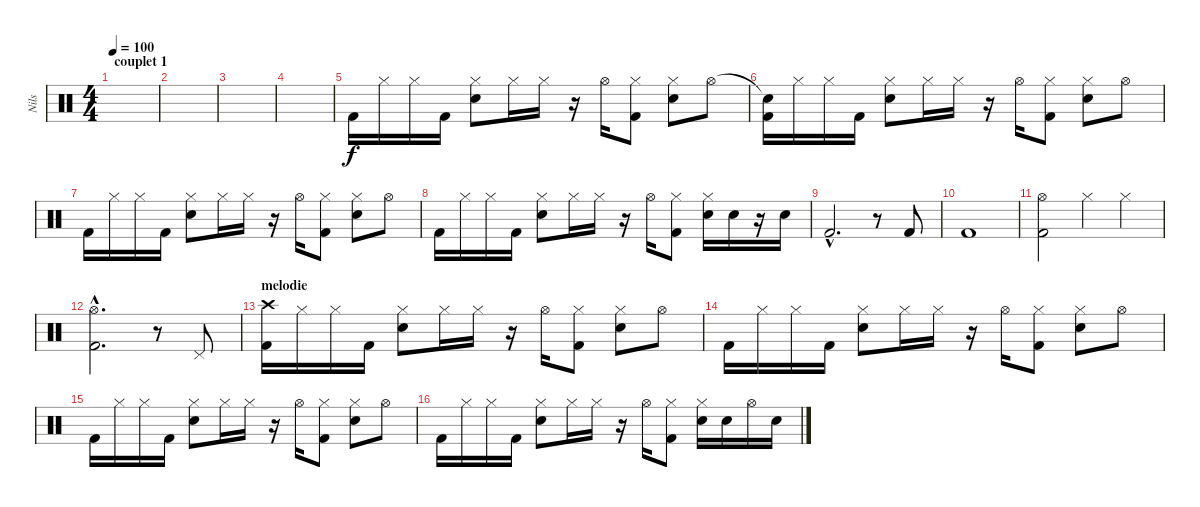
\track ("Nils" "Nils") {instrument percussion}
\staff {score}
\articulation defaults
\ts (4 4)
\section ("" "couplet 1")
\tempo 100
\clef neutral
\ks c
|
|
|
|
"Kick (hit) 2".16 "Hi-Hat (closed)".16 "Hi-Hat (closed)".16 "Kick (hit) 2".16 ("Hi-Hat (closed)" "Snare (hit) 2").8 "Hi-Hat (closed)".16 "Hi-Hat (closed)".16 r.16 "Hi-Hat (open)".16 ("Hi-Hat (closed)" "Kick (hit) 2").8 ("Hi-Hat (closed)" "Snare (hit) 2").8 "Hi-Hat (open)".8 |
("Snare (hit)"{t} "Kick (hit) 2").16 "Hi-Hat (closed)".16 "Hi-Hat (closed)".16 "Kick (hit) 2".16 ("Hi-Hat (closed)" "Snare (hit) 2").8 "Hi-Hat (closed)".16 "Hi-Hat (closed)".16 r.16 "Hi-Hat (open)".16 ("Hi-Hat (closed)" "Kick (hit) 2").8 ("Hi-Hat (closed)" "Snare (hit) 2").8 "Hi-Hat (open)".8 |
"Kick (hit) 2".16 "Hi-Hat (closed)".16 "Hi-Hat (closed)".16 "Kick (hit) 2".16 ("Hi-Hat (closed)" "Snare (hit) 2").8 "Hi-Hat (closed)".16 "Hi-Hat (closed)".16 r.16 "Hi-Hat (open)".16 ("Hi-Hat (closed)" "Kick (hit) 2").8 ("Hi-Hat (closed)" "Snare (hit) 2").8 "Hi-Hat (open)".8 |
"Kick (hit) 2".16 "Hi-Hat (closed)".16 "Hi-Hat (closed)".16 "Kick (hit) 2".16 ("Hi-Hat (closed)" "Snare (hit) 2").8 "Hi-Hat (closed)".16 "Hi-Hat (closed)".16 r.16 "Hi-Hat (open)".16 ("Hi-Hat (closed)" "Kick (hit) 2").8 ("Hi-Hat (closed)" "Snare (hit) 2").16 "Snare (hit) 2".16 r.16 "Snare (hit) 2".16 |
"Kick (hit) 2"{hac}.2{d} r.8 "Kick (hit) 2".8 |
"Kick (hit) 2".1 |
("Hi-Hat (open)" "Kick (hit) 2").2 "Hi-Hat (closed)".4 "Hi-Hat (closed)".4 |
("Hi-Hat (open)"{hac} "Kick (hit) 2"{hac}).2{d} r.8 "Pedal Hi-Hat (hit)".8 |
\section ("" "melodie")
("Crash high (hit)" "Kick (hit) 2").16 "Hi-Hat (closed)".16 "Hi-Hat (closed)".16 "Kick (hit) 2".16 ("Hi-Hat (closed)" "Snare (hit) 2").8 "Hi-Hat (closed)".16 "Hi-Hat (closed)".16 r.16 "Hi-Hat (open)".16 ("Hi-Hat (closed)" "Kick (hit) 2").8 ("Hi-Hat (closed)" "Snare (hit) 2").8 "Hi-Hat (open)".8 |
"Kick (hit) 2".16 "Hi-Hat (closed)".16 "Hi-Hat (closed)".16 "Kick (hit) 2".16 ("Hi-Hat (closed)" "Snare (hit) 2").8 "Hi-Hat (closed)".16 "Hi-Hat (closed)".16 r.16 "Hi-Hat (open)".16 ("Hi-Hat (closed)" "Kick (hit) 2").8 ("Hi-Hat (closed)" "Snare (hit) 2").8 "Hi-Hat (open)".8 |
"Kick (hit) 2".16 "Hi-Hat (closed)".16 "Hi-Hat (closed)".16 "Kick (hit) 2".16 ("Hi-Hat (closed)" "Snare (hit) 2").8 "Hi-Hat (closed)".16 "Hi-Hat (closed)".16 r.16 "Hi-Hat (open)".16 ("Hi-Hat (closed)" "Kick (hit) 2").8 ("Hi-Hat (closed)" "Snare (hit) 2").8 "Hi-Hat (open)".8 |
"Kick (hit) 2".16 "Hi-Hat (closed)".16 "Hi-Hat (closed)".16 "Kick (hit) 2".16 ("Hi-Hat (closed)" "Snare (hit) 2").8 "Hi-Hat (closed)".16 "Hi-Hat (closed)".16 r.16 "Hi-Hat (open)".16 ("Hi-Hat (closed)" "Kick (hit) 2").8 ("Hi-Hat (closed)" "Snare (hit) 2").16 "Snare (hit) 2".16 "Hi-Hat (open)".16 "Snare (hit) 2".16
